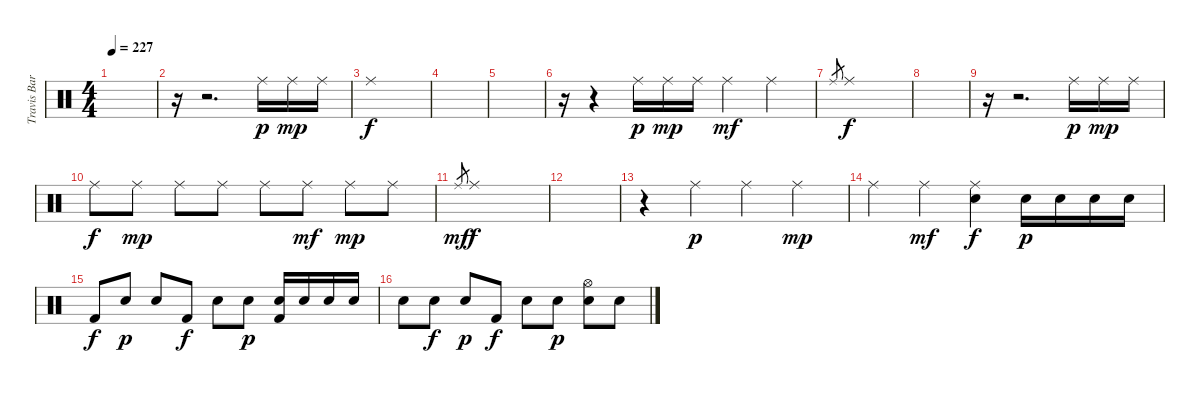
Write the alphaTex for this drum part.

\track ("Travis Barker - Drum" "Travis Bar") {instrument percussion}
\staff {score}
\articulation defaults
\ts (4 4)
\tempo 227
\clef neutral
\ks c
|
r.16 r.2{d} "Ride (middle)".16{dy p} "Ride (middle)".16{dy mp} "Ride (middle)".16 |
"Ride (middle)".1{dy f} |
|
|
r.16 r.4 "Ride (middle)".16{dy p} "Ride (middle)".16{dy mp} "Ride (middle)".16 "Ride (middle)".4{dy mf} "Ride (middle)".4 |
"Ride (middle)".8{gr} "Ride (middle)".1{dy f} |
|
r.16 r.2{d} "Ride (middle)".16{dy p} "Ride (middle)".16{dy mp} "Ride (middle)".16 |
"Ride (middle)".8{dy f} "Ride (middle)".8{dy mp} "Ride (middle)".8 "Ride (middle)".8 "Ride (middle)".8 "Ride (middle)".8{dy mf} "Ride (middle)".8{dy mp} "Ride (middle)".8 |
"Ride (middle)".8{gr dy mf} "Ride (middle)".1{dy f} |
|
r.4 "Ride (middle)".4{dy p} "Ride (middle)".4 "Ride (middle)".4{dy mp} |
"Ride (middle)".4 "Ride (middle)".4{dy mf} ("Ride (middle)" "Electric Snare (hit)").4{dy f} "Electric Snare (hit)".16{dy p} "Electric Snare (hit)".16 "Electric Snare (hit)".16 "Electric Snare (hit)".16 |
"Kick (hit) 2".8{dy f} "Electric Snare (hit)".8{dy p} "Electric Snare (hit)".8 "Kick (hit) 2".8{dy f} "Electric Snare (hit)".8 "Electric Snare (hit)".8{dy p} ("Electric Snare (hit)" "Kick (hit) 2").16 "Electric Snare (hit)".16 "Electric Snare (hit)".16 "Electric Snare (hit)".16 |
"Electric Snare (hit)".8 "Electric Snare (hit)".8{dy f} "Electric Snare (hit)".8{dy p} "Kick (hit) 2".8{dy f} "Electric Snare (hit)".8 "Electric Snare (hit)".8{dy p} ("Hi-Hat (open)" "Electric Snare (hit)").8 "Electric Snare (hit)".8
